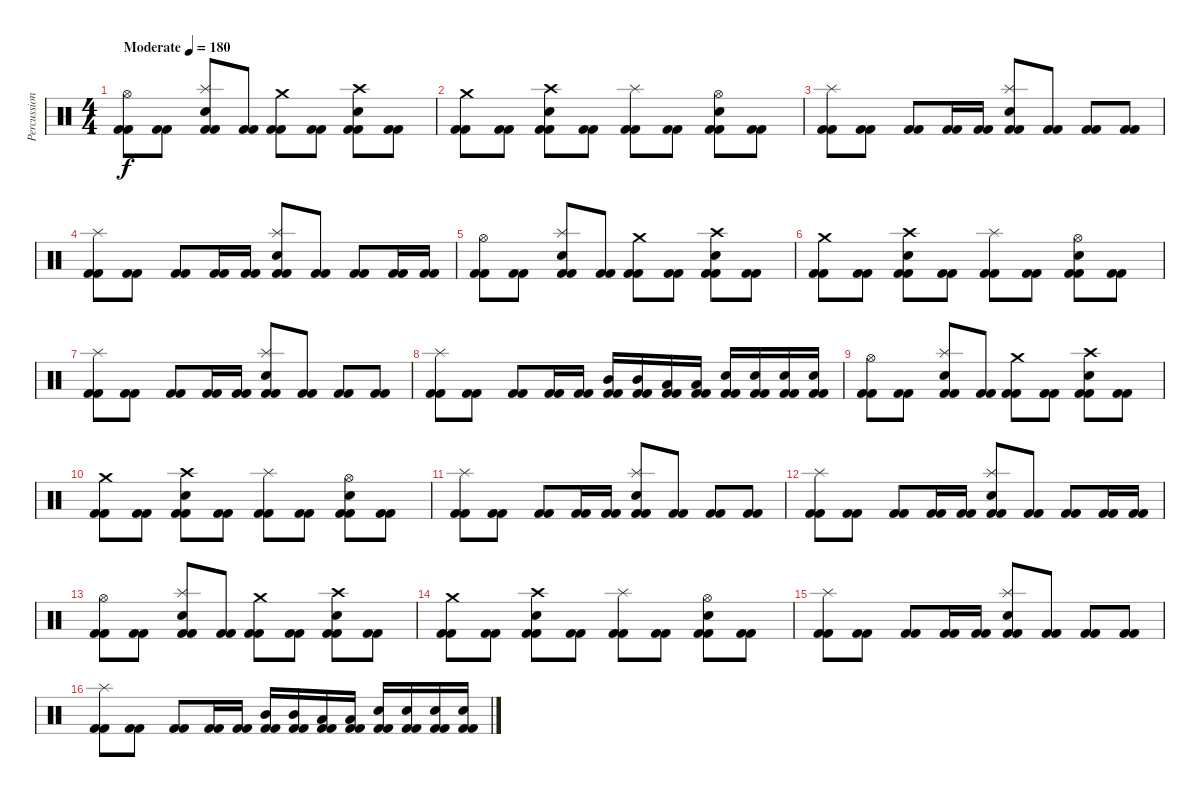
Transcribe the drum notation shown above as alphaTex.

\track ("Percussion" "Percussion") {instrument percussion}
\staff {score}
\articulation defaults
\ts (4 4)
\tempo (180 "Moderate")
\clef neutral
\ks c
("Hi-Hat (open)" "Kick (hit) 2" "Kick (hit) 2").8{dy f} ("Kick (hit) 2" "Kick (hit) 2").8 ("Splash (hit)" "Electric Snare (hit)" "Kick (hit) 2" "Kick (hit) 2").8 ("Kick (hit) 2" "Kick (hit) 2").8 ("Crash medium (hit)" "Kick (hit) 2" "Kick (hit) 2").8 ("Kick (hit) 2" "Kick (hit) 2").8 ("Crash high (hit)" "Electric Snare (hit)" "Kick (hit) 2" "Kick (hit) 2").8 ("Kick (hit) 2" "Kick (hit) 2").8 |
("Crash medium (hit)" "Kick (hit) 2" "Kick (hit) 2").8 ("Kick (hit) 2" "Kick (hit) 2").8 ("Crash high (hit)" "Electric Snare (hit)" "Kick (hit) 2" "Kick (hit) 2").8 ("Kick (hit) 2" "Kick (hit) 2").8 ("Splash (hit)" "Kick (hit) 2" "Kick (hit) 2").8 ("Kick (hit) 2" "Kick (hit) 2").8 ("Hi-Hat (open)" "Electric Snare (hit)" "Kick (hit) 2" "Kick (hit) 2").8 ("Kick (hit) 2" "Kick (hit) 2").8 |
("Splash (hit)" "Kick (hit) 2" "Kick (hit) 2").8 ("Kick (hit) 2" "Kick (hit) 2").8 ("Kick (hit) 2" "Kick (hit) 2").8 ("Kick (hit) 2" "Kick (hit) 2").16 ("Kick (hit) 2" "Kick (hit) 2").16 ("Splash (hit)" "Electric Snare (hit)" "Kick (hit) 2" "Kick (hit) 2").8 ("Kick (hit) 2" "Kick (hit) 2").8 ("Kick (hit) 2" "Kick (hit) 2").8 ("Kick (hit) 2" "Kick (hit) 2").8 |
("Splash (hit)" "Kick (hit) 2" "Kick (hit) 2").8 ("Kick (hit) 2" "Kick (hit) 2").8 ("Kick (hit) 2" "Kick (hit) 2").8 ("Kick (hit) 2" "Kick (hit) 2").16 ("Kick (hit) 2" "Kick (hit) 2").16 ("Splash (hit)" "Electric Snare (hit)" "Kick (hit) 2" "Kick (hit) 2").8 ("Kick (hit) 2" "Kick (hit) 2").8 ("Kick (hit) 2" "Kick (hit) 2").8 ("Kick (hit) 2" "Kick (hit) 2").16 ("Kick (hit) 2" "Kick (hit) 2").16 |
("Hi-Hat (open)" "Kick (hit) 2" "Kick (hit) 2").8 ("Kick (hit) 2" "Kick (hit) 2").8 ("Splash (hit)" "Electric Snare (hit)" "Kick (hit) 2" "Kick (hit) 2").8 ("Kick (hit) 2" "Kick (hit) 2").8 ("Crash medium (hit)" "Kick (hit) 2" "Kick (hit) 2").8 ("Kick (hit) 2" "Kick (hit) 2").8 ("Crash high (hit)" "Electric Snare (hit)" "Kick (hit) 2" "Kick (hit) 2").8 ("Kick (hit) 2" "Kick (hit) 2").8 |
("Crash medium (hit)" "Kick (hit) 2" "Kick (hit) 2").8 ("Kick (hit) 2" "Kick (hit) 2").8 ("Crash high (hit)" "Electric Snare (hit)" "Kick (hit) 2" "Kick (hit) 2").8 ("Kick (hit) 2" "Kick (hit) 2").8 ("Splash (hit)" "Kick (hit) 2" "Kick (hit) 2").8 ("Kick (hit) 2" "Kick (hit) 2").8 ("Hi-Hat (open)" "Electric Snare (hit)" "Kick (hit) 2" "Kick (hit) 2").8 ("Kick (hit) 2" "Kick (hit) 2").8 |
("Splash (hit)" "Kick (hit) 2" "Kick (hit) 2").8 ("Kick (hit) 2" "Kick (hit) 2").8 ("Kick (hit) 2" "Kick (hit) 2").8 ("Kick (hit) 2" "Kick (hit) 2").16 ("Kick (hit) 2" "Kick (hit) 2").16 ("Splash (hit)" "Electric Snare (hit)" "Kick (hit) 2" "Kick (hit) 2").8 ("Kick (hit) 2" "Kick (hit) 2").8 ("Kick (hit) 2" "Kick (hit) 2").8 ("Kick (hit) 2" "Kick (hit) 2").8 |
("Splash (hit)" "Kick (hit) 2" "Kick (hit) 2").8 ("Kick (hit) 2" "Kick (hit) 2").8 ("Kick (hit) 2" "Kick (hit) 2").8 ("Kick (hit) 2" "Kick (hit) 2").16 ("Kick (hit) 2" "Kick (hit) 2").16 ("Mid Tom (hit)" "Kick (hit) 2" "Kick (hit) 2").16 ("Mid Tom (hit)" "Kick (hit) 2" "Kick (hit) 2").16 ("Low Tom (hit)" "Kick (hit) 2" "Kick (hit) 2").16 ("Low Tom (hit)" "Kick (hit) 2" "Kick (hit) 2").16 ("Electric Snare (hit)" "Kick (hit) 2" "Kick (hit) 2").16 ("Electric Snare (hit)" "Kick (hit) 2" "Kick (hit) 2").16 ("Electric Snare (hit)" "Kick (hit) 2" "Kick (hit) 2").16 ("Electric Snare (hit)" "Kick (hit) 2" "Kick (hit) 2").16 |
("Hi-Hat (open)" "Kick (hit) 2" "Kick (hit) 2").8 ("Kick (hit) 2" "Kick (hit) 2").8 ("Splash (hit)" "Electric Snare (hit)" "Kick (hit) 2" "Kick (hit) 2").8 ("Kick (hit) 2" "Kick (hit) 2").8 ("Crash medium (hit)" "Kick (hit) 2" "Kick (hit) 2").8 ("Kick (hit) 2" "Kick (hit) 2").8 ("Crash high (hit)" "Electric Snare (hit)" "Kick (hit) 2" "Kick (hit) 2").8 ("Kick (hit) 2" "Kick (hit) 2").8 |
("Crash medium (hit)" "Kick (hit) 2" "Kick (hit) 2").8 ("Kick (hit) 2" "Kick (hit) 2").8 ("Crash high (hit)" "Electric Snare (hit)" "Kick (hit) 2" "Kick (hit) 2").8 ("Kick (hit) 2" "Kick (hit) 2").8 ("Splash (hit)" "Kick (hit) 2" "Kick (hit) 2").8 ("Kick (hit) 2" "Kick (hit) 2").8 ("Hi-Hat (open)" "Electric Snare (hit)" "Kick (hit) 2" "Kick (hit) 2").8 ("Kick (hit) 2" "Kick (hit) 2").8 |
("Splash (hit)" "Kick (hit) 2" "Kick (hit) 2").8 ("Kick (hit) 2" "Kick (hit) 2").8 ("Kick (hit) 2" "Kick (hit) 2").8 ("Kick (hit) 2" "Kick (hit) 2").16 ("Kick (hit) 2" "Kick (hit) 2").16 ("Splash (hit)" "Electric Snare (hit)" "Kick (hit) 2" "Kick (hit) 2").8 ("Kick (hit) 2" "Kick (hit) 2").8 ("Kick (hit) 2" "Kick (hit) 2").8 ("Kick (hit) 2" "Kick (hit) 2").8 |
("Splash (hit)" "Kick (hit) 2" "Kick (hit) 2").8 ("Kick (hit) 2" "Kick (hit) 2").8 ("Kick (hit) 2" "Kick (hit) 2").8 ("Kick (hit) 2" "Kick (hit) 2").16 ("Kick (hit) 2" "Kick (hit) 2").16 ("Splash (hit)" "Electric Snare (hit)" "Kick (hit) 2" "Kick (hit) 2").8 ("Kick (hit) 2" "Kick (hit) 2").8 ("Kick (hit) 2" "Kick (hit) 2").8 ("Kick (hit) 2" "Kick (hit) 2").16 ("Kick (hit) 2" "Kick (hit) 2").16 |
("Hi-Hat (open)" "Kick (hit) 2" "Kick (hit) 2").8 ("Kick (hit) 2" "Kick (hit) 2").8 ("Splash (hit)" "Electric Snare (hit)" "Kick (hit) 2" "Kick (hit) 2").8 ("Kick (hit) 2" "Kick (hit) 2").8 ("Crash medium (hit)" "Kick (hit) 2" "Kick (hit) 2").8 ("Kick (hit) 2" "Kick (hit) 2").8 ("Crash high (hit)" "Electric Snare (hit)" "Kick (hit) 2" "Kick (hit) 2").8 ("Kick (hit) 2" "Kick (hit) 2").8 |
("Crash medium (hit)" "Kick (hit) 2" "Kick (hit) 2").8 ("Kick (hit) 2" "Kick (hit) 2").8 ("Crash high (hit)" "Electric Snare (hit)" "Kick (hit) 2" "Kick (hit) 2").8 ("Kick (hit) 2" "Kick (hit) 2").8 ("Splash (hit)" "Kick (hit) 2" "Kick (hit) 2").8 ("Kick (hit) 2" "Kick (hit) 2").8 ("Hi-Hat (open)" "Electric Snare (hit)" "Kick (hit) 2" "Kick (hit) 2").8 ("Kick (hit) 2" "Kick (hit) 2").8 |
("Splash (hit)" "Kick (hit) 2" "Kick (hit) 2").8 ("Kick (hit) 2" "Kick (hit) 2").8 ("Kick (hit) 2" "Kick (hit) 2").8 ("Kick (hit) 2" "Kick (hit) 2").16 ("Kick (hit) 2" "Kick (hit) 2").16 ("Splash (hit)" "Electric Snare (hit)" "Kick (hit) 2" "Kick (hit) 2").8 ("Kick (hit) 2" "Kick (hit) 2").8 ("Kick (hit) 2" "Kick (hit) 2").8 ("Kick (hit) 2" "Kick (hit) 2").8 |
("Splash (hit)" "Kick (hit) 2" "Kick (hit) 2").8 ("Kick (hit) 2" "Kick (hit) 2").8 ("Kick (hit) 2" "Kick (hit) 2").8 ("Kick (hit) 2" "Kick (hit) 2").16 ("Kick (hit) 2" "Kick (hit) 2").16 ("Mid Tom (hit)" "Kick (hit) 2" "Kick (hit) 2").16 ("Mid Tom (hit)" "Kick (hit) 2" "Kick (hit) 2").16 ("Low Tom (hit)" "Kick (hit) 2" "Kick (hit) 2").16 ("Low Tom (hit)" "Kick (hit) 2" "Kick (hit) 2").16 ("Electric Snare (hit)" "Kick (hit) 2" "Kick (hit) 2").16 ("Electric Snare (hit)" "Kick (hit) 2" "Kick (hit) 2").16 ("Electric Snare (hit)" "Kick (hit) 2" "Kick (hit) 2").16 ("Electric Snare (hit)" "Kick (hit) 2" "Kick (hit) 2").16
